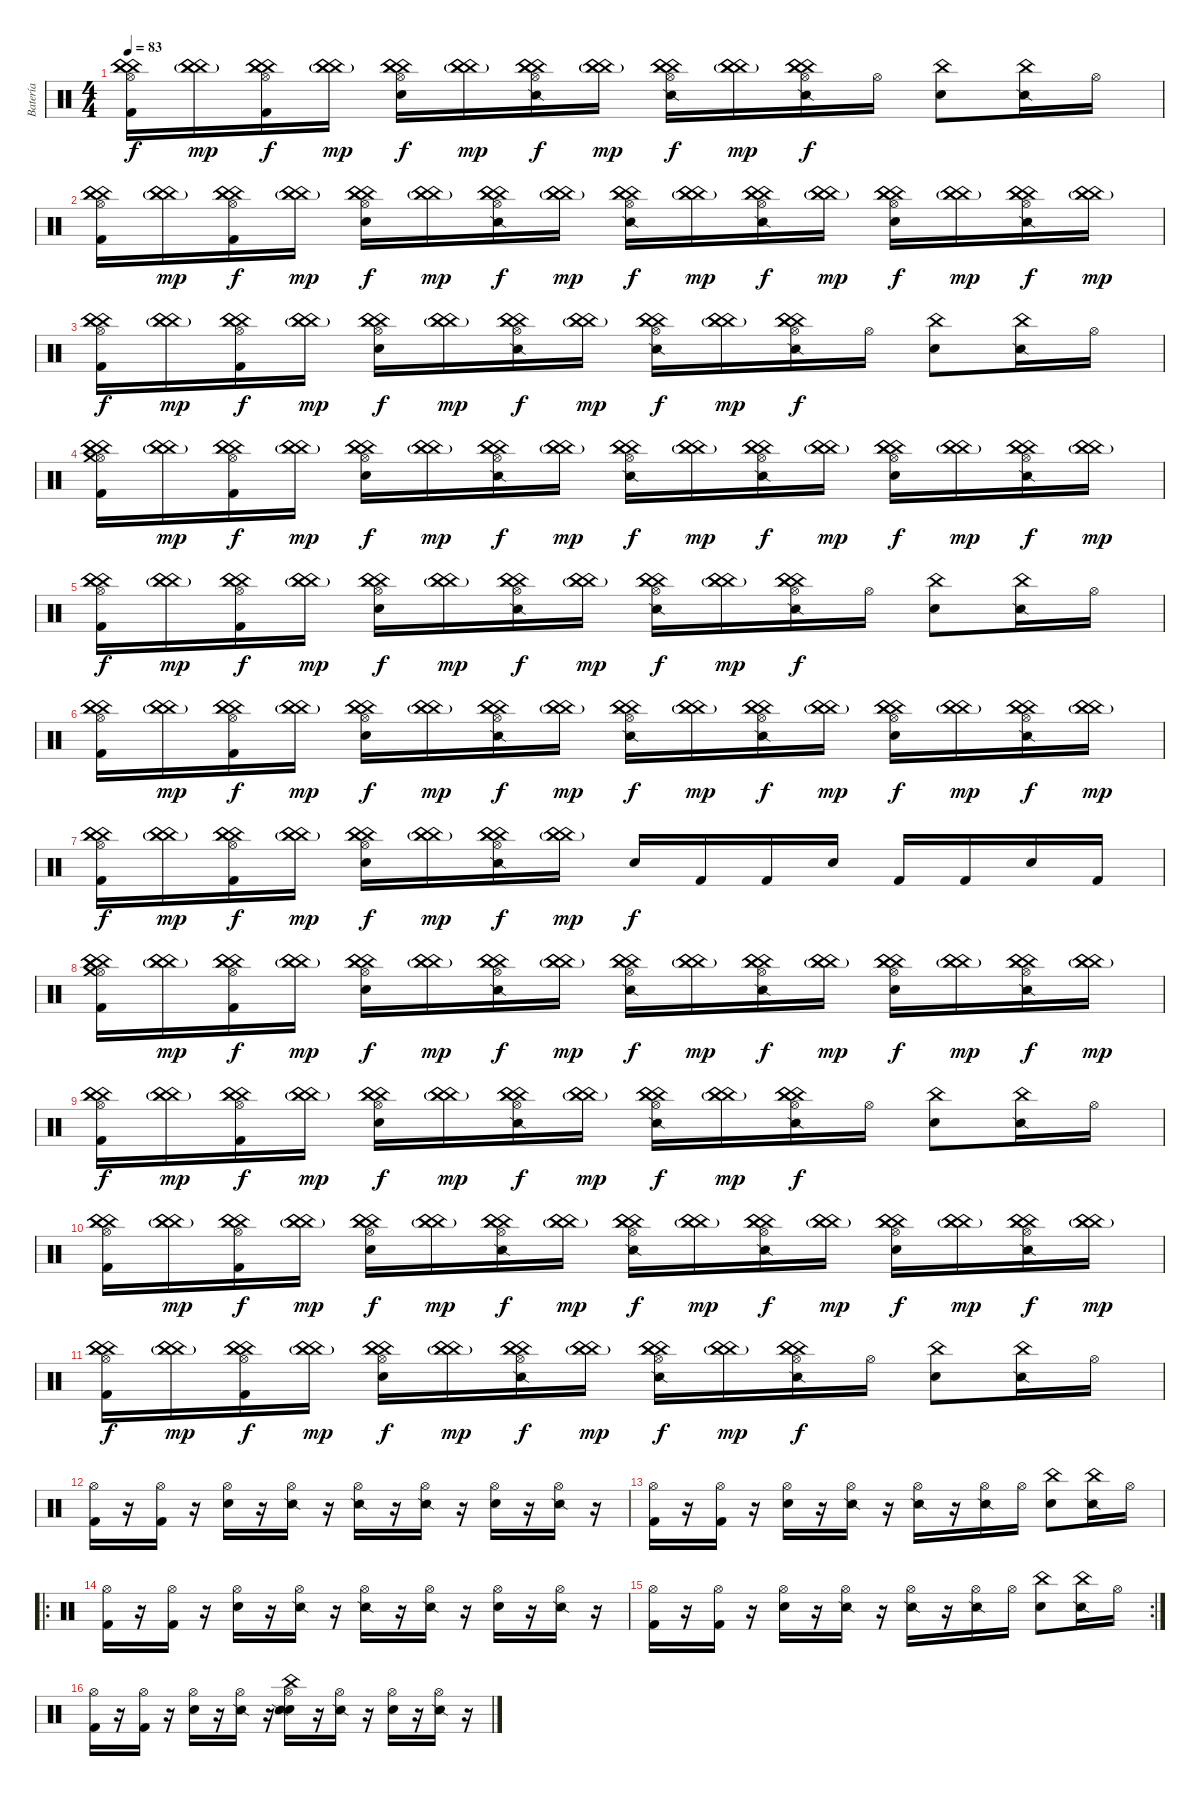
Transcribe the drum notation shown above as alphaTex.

\track ("Batería" "Batería") {instrument percussion}
\staff {score}
\articulation defaults
\ts (4 4)
\tempo 83
\clef neutral
\ks c
("Hi-Hat (open)" "China (hit)" "China (hit)" "China (hit)" "Kick (hit) 2").16{dy f} ("China (hit)"{g} "China (hit)"{g} "China (hit)"{g}).16{dy mp} ("Hi-Hat (open)" "China (hit)" "China (hit)" "China (hit)" "Kick (hit) 2").16{dy f} ("China (hit)"{g} "China (hit)"{g} "China (hit)"{g}).16{dy mp} ("Hi-Hat (open)" "China (hit)" "China (hit)" "China (hit)" "Electric Snare (hit)").16{dy f} ("China (hit)"{g} "China (hit)"{g} "China (hit)"{g}).16{dy mp} ("Hi-Hat (open)" "China (hit)" "China (hit)" "China (hit)" "Snare (side stick) 2").16{dy f} ("China (hit)"{g} "China (hit)"{g} "China (hit)"{g}).16{dy mp} ("Hi-Hat (open)" "China (hit)" "China (hit)" "China (hit)" "Snare (side stick) 2").16{dy f} ("China (hit)"{g} "China (hit)"{g} "China (hit)"{g}).16{dy mp} ("Hi-Hat (open)" "China (hit)" "China (hit)" "China (hit)" "Snare (side stick) 2").16{dy f} "Hi-Hat (open)".16 ("China (hit)" "Electric Snare (hit)").8 ("China (hit)" "Snare (side stick) 2").16 "Hi-Hat (open)".16 |
("Hi-Hat (open)" "China (hit)" "China (hit)" "China (hit)" "Kick (hit) 2").16 ("China (hit)"{g} "China (hit)"{g} "China (hit)"{g}).16{dy mp} ("Hi-Hat (open)" "China (hit)" "China (hit)" "China (hit)" "Kick (hit) 2").16{dy f} ("China (hit)"{g} "China (hit)"{g} "China (hit)"{g}).16{dy mp} ("Hi-Hat (open)" "China (hit)" "China (hit)" "China (hit)" "Electric Snare (hit)").16{dy f} ("China (hit)"{g} "China (hit)"{g} "China (hit)"{g}).16{dy mp} ("Hi-Hat (open)" "China (hit)" "China (hit)" "China (hit)" "Snare (side stick) 2").16{dy f} ("China (hit)"{g} "China (hit)"{g} "China (hit)"{g}).16{dy mp} ("Hi-Hat (open)" "China (hit)" "China (hit)" "China (hit)" "Snare (side stick) 2").16{dy f} ("China (hit)"{g} "China (hit)"{g} "China (hit)"{g}).16{dy mp} ("Hi-Hat (open)" "China (hit)" "China (hit)" "China (hit)" "Snare (side stick) 2").16{dy f} ("China (hit)"{g} "China (hit)"{g} "China (hit)"{g}).16{dy mp} ("Hi-Hat (open)" "China (hit)" "China (hit)" "China (hit)" "Electric Snare (hit)").16{dy f} ("China (hit)"{g} "China (hit)"{g} "China (hit)"{g}).16{dy mp} ("Hi-Hat (open)" "China (hit)" "China (hit)" "China (hit)" "Snare (side stick) 2").16{dy f} ("China (hit)"{g} "China (hit)"{g} "China (hit)"{g}).16{dy mp} |
("Hi-Hat (open)" "China (hit)" "China (hit)" "China (hit)" "Kick (hit) 2").16{dy f} ("China (hit)"{g} "China (hit)"{g} "China (hit)"{g}).16{dy mp} ("Hi-Hat (open)" "China (hit)" "China (hit)" "China (hit)" "Kick (hit) 2").16{dy f} ("China (hit)"{g} "China (hit)"{g} "China (hit)"{g}).16{dy mp} ("Hi-Hat (open)" "China (hit)" "China (hit)" "China (hit)" "Electric Snare (hit)").16{dy f} ("China (hit)"{g} "China (hit)"{g} "China (hit)"{g}).16{dy mp} ("Hi-Hat (open)" "China (hit)" "China (hit)" "China (hit)" "Snare (side stick) 2").16{dy f} ("China (hit)"{g} "China (hit)"{g} "China (hit)"{g}).16{dy mp} ("Hi-Hat (open)" "China (hit)" "China (hit)" "China (hit)" "Snare (side stick) 2").16{dy f} ("China (hit)"{g} "China (hit)"{g} "China (hit)"{g}).16{dy mp} ("Hi-Hat (open)" "China (hit)" "China (hit)" "China (hit)" "Snare (side stick) 2").16{dy f} "Hi-Hat (open)".16 ("China (hit)" "Electric Snare (hit)").8 ("China (hit)" "Snare (side stick) 2").16 "Hi-Hat (open)".16 |
("Hi-Hat (open)" "China (hit)" "China (hit)" "China (hit)" "Kick (hit) 2" "Crash medium (hit)").16 ("China (hit)"{g} "China (hit)"{g} "China (hit)"{g}).16{dy mp} ("Hi-Hat (open)" "China (hit)" "China (hit)" "China (hit)" "Kick (hit) 2").16{dy f} ("China (hit)"{g} "China (hit)"{g} "China (hit)"{g}).16{dy mp} ("Hi-Hat (open)" "China (hit)" "China (hit)" "China (hit)" "Electric Snare (hit)").16{dy f} ("China (hit)"{g} "China (hit)"{g} "China (hit)"{g}).16{dy mp} ("Hi-Hat (open)" "China (hit)" "China (hit)" "China (hit)" "Snare (side stick) 2").16{dy f} ("China (hit)"{g} "China (hit)"{g} "China (hit)"{g}).16{dy mp} ("Hi-Hat (open)" "China (hit)" "China (hit)" "China (hit)" "Snare (side stick) 2").16{dy f} ("China (hit)"{g} "China (hit)"{g} "China (hit)"{g}).16{dy mp} ("Hi-Hat (open)" "China (hit)" "China (hit)" "China (hit)" "Snare (side stick) 2").16{dy f} ("China (hit)"{g} "China (hit)"{g} "China (hit)"{g}).16{dy mp} ("Hi-Hat (open)" "China (hit)" "China (hit)" "China (hit)" "Electric Snare (hit)").16{dy f} ("China (hit)"{g} "China (hit)"{g} "China (hit)"{g}).16{dy mp} ("Hi-Hat (open)" "China (hit)" "China (hit)" "China (hit)" "Snare (side stick) 2").16{dy f} ("China (hit)"{g} "China (hit)"{g} "China (hit)"{g}).16{dy mp} |
("Hi-Hat (open)" "China (hit)" "China (hit)" "China (hit)" "Kick (hit) 2").16{dy f} ("China (hit)"{g} "China (hit)"{g} "China (hit)"{g}).16{dy mp} ("Hi-Hat (open)" "China (hit)" "China (hit)" "China (hit)" "Kick (hit) 2").16{dy f} ("China (hit)"{g} "China (hit)"{g} "China (hit)"{g}).16{dy mp} ("Hi-Hat (open)" "China (hit)" "China (hit)" "China (hit)" "Electric Snare (hit)").16{dy f} ("China (hit)"{g} "China (hit)"{g} "China (hit)"{g}).16{dy mp} ("Hi-Hat (open)" "China (hit)" "China (hit)" "China (hit)" "Snare (side stick) 2").16{dy f} ("China (hit)"{g} "China (hit)"{g} "China (hit)"{g}).16{dy mp} ("Hi-Hat (open)" "China (hit)" "China (hit)" "China (hit)" "Snare (side stick) 2").16{dy f} ("China (hit)"{g} "China (hit)"{g} "China (hit)"{g}).16{dy mp} ("Hi-Hat (open)" "China (hit)" "China (hit)" "China (hit)" "Snare (side stick) 2").16{dy f} "Hi-Hat (open)".16 ("China (hit)" "Electric Snare (hit)").8 ("China (hit)" "Snare (side stick) 2").16 "Hi-Hat (open)".16 |
("Hi-Hat (open)" "China (hit)" "China (hit)" "China (hit)" "Kick (hit) 2").16 ("China (hit)"{g} "China (hit)"{g} "China (hit)"{g}).16{dy mp} ("Hi-Hat (open)" "China (hit)" "China (hit)" "China (hit)" "Kick (hit) 2").16{dy f} ("China (hit)"{g} "China (hit)"{g} "China (hit)"{g}).16{dy mp} ("Hi-Hat (open)" "China (hit)" "China (hit)" "China (hit)" "Electric Snare (hit)").16{dy f} ("China (hit)"{g} "China (hit)"{g} "China (hit)"{g}).16{dy mp} ("Hi-Hat (open)" "China (hit)" "China (hit)" "China (hit)" "Snare (side stick) 2").16{dy f} ("China (hit)"{g} "China (hit)"{g} "China (hit)"{g}).16{dy mp} ("Hi-Hat (open)" "China (hit)" "China (hit)" "China (hit)" "Snare (side stick) 2").16{dy f} ("China (hit)"{g} "China (hit)"{g} "China (hit)"{g}).16{dy mp} ("Hi-Hat (open)" "China (hit)" "China (hit)" "China (hit)" "Snare (side stick) 2").16{dy f} ("China (hit)"{g} "China (hit)"{g} "China (hit)"{g}).16{dy mp} ("Hi-Hat (open)" "China (hit)" "China (hit)" "China (hit)" "Electric Snare (hit)").16{dy f} ("China (hit)"{g} "China (hit)"{g} "China (hit)"{g}).16{dy mp} ("Hi-Hat (open)" "China (hit)" "China (hit)" "China (hit)" "Snare (side stick) 2").16{dy f} ("China (hit)"{g} "China (hit)"{g} "China (hit)"{g}).16{dy mp} |
("Hi-Hat (open)" "China (hit)" "China (hit)" "China (hit)" "Kick (hit) 2").16{dy f} ("China (hit)"{g} "China (hit)"{g} "China (hit)"{g}).16{dy mp} ("Hi-Hat (open)" "China (hit)" "China (hit)" "China (hit)" "Kick (hit) 2").16{dy f} ("China (hit)"{g} "China (hit)"{g} "China (hit)"{g}).16{dy mp} ("Hi-Hat (open)" "China (hit)" "China (hit)" "China (hit)" "Electric Snare (hit)").16{dy f} ("China (hit)"{g} "China (hit)"{g} "China (hit)"{g}).16{dy mp} ("Hi-Hat (open)" "China (hit)" "China (hit)" "China (hit)" "Snare (side stick) 2").16{dy f} ("China (hit)"{g} "China (hit)"{g} "China (hit)"{g}).16{dy mp} "Electric Snare (hit)".16{dy f} "Kick (hit) 2".16 "Kick (hit) 2".16 "Electric Snare (hit)".16 "Kick (hit) 2".16 "Kick (hit) 2".16 "Electric Snare (hit)".16 "Kick (hit) 2".16 |
("Hi-Hat (open)" "China (hit)" "China (hit)" "China (hit)" "Kick (hit) 2" "Crash medium (hit)").16 ("China (hit)"{g} "China (hit)"{g} "China (hit)"{g}).16{dy mp} ("Hi-Hat (open)" "China (hit)" "China (hit)" "China (hit)" "Kick (hit) 2").16{dy f} ("China (hit)"{g} "China (hit)"{g} "China (hit)"{g}).16{dy mp} ("Hi-Hat (open)" "China (hit)" "China (hit)" "China (hit)" "Electric Snare (hit)").16{dy f} ("China (hit)"{g} "China (hit)"{g} "China (hit)"{g}).16{dy mp} ("Hi-Hat (open)" "China (hit)" "China (hit)" "China (hit)" "Snare (side stick) 2").16{dy f} ("China (hit)"{g} "China (hit)"{g} "China (hit)"{g}).16{dy mp} ("Hi-Hat (open)" "China (hit)" "China (hit)" "China (hit)" "Snare (side stick) 2").16{dy f} ("China (hit)"{g} "China (hit)"{g} "China (hit)"{g}).16{dy mp} ("Hi-Hat (open)" "China (hit)" "China (hit)" "China (hit)" "Snare (side stick) 2").16{dy f} ("China (hit)"{g} "China (hit)"{g} "China (hit)"{g}).16{dy mp} ("Hi-Hat (open)" "China (hit)" "China (hit)" "China (hit)" "Electric Snare (hit)").16{dy f} ("China (hit)"{g} "China (hit)"{g} "China (hit)"{g}).16{dy mp} ("Hi-Hat (open)" "China (hit)" "China (hit)" "China (hit)" "Snare (side stick) 2").16{dy f} ("China (hit)"{g} "China (hit)"{g} "China (hit)"{g}).16{dy mp} |
("Hi-Hat (open)" "China (hit)" "China (hit)" "China (hit)" "Kick (hit) 2").16{dy f} ("China (hit)"{g} "China (hit)"{g} "China (hit)"{g}).16{dy mp} ("Hi-Hat (open)" "China (hit)" "China (hit)" "China (hit)" "Kick (hit) 2").16{dy f} ("China (hit)"{g} "China (hit)"{g} "China (hit)"{g}).16{dy mp} ("Hi-Hat (open)" "China (hit)" "China (hit)" "China (hit)" "Electric Snare (hit)").16{dy f} ("China (hit)"{g} "China (hit)"{g} "China (hit)"{g}).16{dy mp} ("Hi-Hat (open)" "China (hit)" "China (hit)" "China (hit)" "Snare (side stick) 2").16{dy f} ("China (hit)"{g} "China (hit)"{g} "China (hit)"{g}).16{dy mp} ("Hi-Hat (open)" "China (hit)" "China (hit)" "China (hit)" "Snare (side stick) 2").16{dy f} ("China (hit)"{g} "China (hit)"{g} "China (hit)"{g}).16{dy mp} ("Hi-Hat (open)" "China (hit)" "China (hit)" "China (hit)" "Snare (side stick) 2").16{dy f} "Hi-Hat (open)".16 ("China (hit)" "Electric Snare (hit)").8 ("China (hit)" "Snare (side stick) 2").16 "Hi-Hat (open)".16 |
("Hi-Hat (open)" "China (hit)" "China (hit)" "China (hit)" "Kick (hit) 2").16 ("China (hit)"{g} "China (hit)"{g} "China (hit)"{g}).16{dy mp} ("Hi-Hat (open)" "China (hit)" "China (hit)" "China (hit)" "Kick (hit) 2").16{dy f} ("China (hit)"{g} "China (hit)"{g} "China (hit)"{g}).16{dy mp} ("Hi-Hat (open)" "China (hit)" "China (hit)" "China (hit)" "Electric Snare (hit)").16{dy f} ("China (hit)"{g} "China (hit)"{g} "China (hit)"{g}).16{dy mp} ("Hi-Hat (open)" "China (hit)" "China (hit)" "China (hit)" "Snare (side stick) 2").16{dy f} ("China (hit)"{g} "China (hit)"{g} "China (hit)"{g}).16{dy mp} ("Hi-Hat (open)" "China (hit)" "China (hit)" "China (hit)" "Snare (side stick) 2").16{dy f} ("China (hit)"{g} "China (hit)"{g} "China (hit)"{g}).16{dy mp} ("Hi-Hat (open)" "China (hit)" "China (hit)" "China (hit)" "Snare (side stick) 2").16{dy f} ("China (hit)"{g} "China (hit)"{g} "China (hit)"{g}).16{dy mp} ("Hi-Hat (open)" "China (hit)" "China (hit)" "China (hit)" "Electric Snare (hit)").16{dy f} ("China (hit)"{g} "China (hit)"{g} "China (hit)"{g}).16{dy mp} ("Hi-Hat (open)" "China (hit)" "China (hit)" "China (hit)" "Snare (side stick) 2").16{dy f} ("China (hit)"{g} "China (hit)"{g} "China (hit)"{g}).16{dy mp} |
("Hi-Hat (open)" "China (hit)" "China (hit)" "China (hit)" "Kick (hit) 2").16{dy f} ("China (hit)"{g} "China (hit)"{g} "China (hit)"{g}).16{dy mp} ("Hi-Hat (open)" "China (hit)" "China (hit)" "China (hit)" "Kick (hit) 2").16{dy f} ("China (hit)"{g} "China (hit)"{g} "China (hit)"{g}).16{dy mp} ("Hi-Hat (open)" "China (hit)" "China (hit)" "China (hit)" "Electric Snare (hit)").16{dy f} ("China (hit)"{g} "China (hit)"{g} "China (hit)"{g}).16{dy mp} ("Hi-Hat (open)" "China (hit)" "China (hit)" "China (hit)" "Snare (side stick) 2").16{dy f} ("China (hit)"{g} "China (hit)"{g} "China (hit)"{g}).16{dy mp} ("Hi-Hat (open)" "China (hit)" "China (hit)" "China (hit)" "Snare (side stick) 2").16{dy f} ("China (hit)"{g} "China (hit)"{g} "China (hit)"{g}).16{dy mp} ("Hi-Hat (open)" "China (hit)" "China (hit)" "China (hit)" "Snare (side stick) 2").16{dy f} "Hi-Hat (open)".16 ("China (hit)" "Electric Snare (hit)").8 ("China (hit)" "Snare (side stick) 2").16 "Hi-Hat (open)".16 |
("Hi-Hat (open)" "Kick (hit) 2").16 r.16 ("Hi-Hat (open)" "Kick (hit) 2").16 r.16 ("Hi-Hat (open)" "Electric Snare (hit)").16 r.16 ("Hi-Hat (open)" "Snare (side stick) 2").16 r.16 ("Hi-Hat (open)" "Snare (side stick) 2").16 r.16 ("Hi-Hat (open)" "Snare (side stick) 2").16 r.16 ("Hi-Hat (open)" "Electric Snare (hit)").16 r.16 ("Hi-Hat (open)" "Snare (side stick) 2").16 r.16 |
("Hi-Hat (open)" "Kick (hit) 2").16 r.16 ("Hi-Hat (open)" "Kick (hit) 2").16 r.16 ("Hi-Hat (open)" "Electric Snare (hit)").16 r.16 ("Hi-Hat (open)" "Snare (side stick) 2").16 r.16 ("Hi-Hat (open)" "Snare (side stick) 2").16 r.16 ("Hi-Hat (open)" "Snare (side stick) 2").16 "Hi-Hat (open)".16 ("China (hit)" "Electric Snare (hit)").8 ("China (hit)" "Snare (side stick) 2").16 "Hi-Hat (open)".16 |
\ro
("Hi-Hat (open)" "Kick (hit) 2").16 r.16 ("Hi-Hat (open)" "Kick (hit) 2").16 r.16 ("Hi-Hat (open)" "Electric Snare (hit)").16 r.16 ("Hi-Hat (open)" "Snare (side stick) 2").16 r.16 ("Hi-Hat (open)" "Snare (side stick) 2").16 r.16 ("Hi-Hat (open)" "Snare (side stick) 2").16 r.16 ("Hi-Hat (open)" "Electric Snare (hit)").16 r.16 ("Hi-Hat (open)" "Snare (side stick) 2").16 r.16 |
\rc 2
("Hi-Hat (open)" "Kick (hit) 2").16 r.16 ("Hi-Hat (open)" "Kick (hit) 2").16 r.16 ("Hi-Hat (open)" "Electric Snare (hit)").16 r.16 ("Hi-Hat (open)" "Snare (side stick) 2").16 r.16 ("Hi-Hat (open)" "Snare (side stick) 2").16 r.16 ("Hi-Hat (open)" "Snare (side stick) 2").16 "Hi-Hat (open)".16 ("China (hit)" "Electric Snare (hit)").8 ("China (hit)" "Snare (side stick) 2").16 "Hi-Hat (open)".16 |
("Hi-Hat (open)" "Kick (hit) 2").16 r.16 ("Hi-Hat (open)" "Kick (hit) 2").16 r.16 ("Hi-Hat (open)" "Electric Snare (hit)").16 r.16 ("Hi-Hat (open)" "Snare (side stick) 2").16 r.16 ("Hi-Hat (open)" "China (hit)" "Snare (hit) 2" "Snare (side stick) 2").16 r.16 ("Hi-Hat (open)" "Snare (side stick) 2").16 r.16 ("Hi-Hat (open)" "Electric Snare (hit)").16 r.16 ("Hi-Hat (open)" "Snare (side stick) 2").16 r.16
